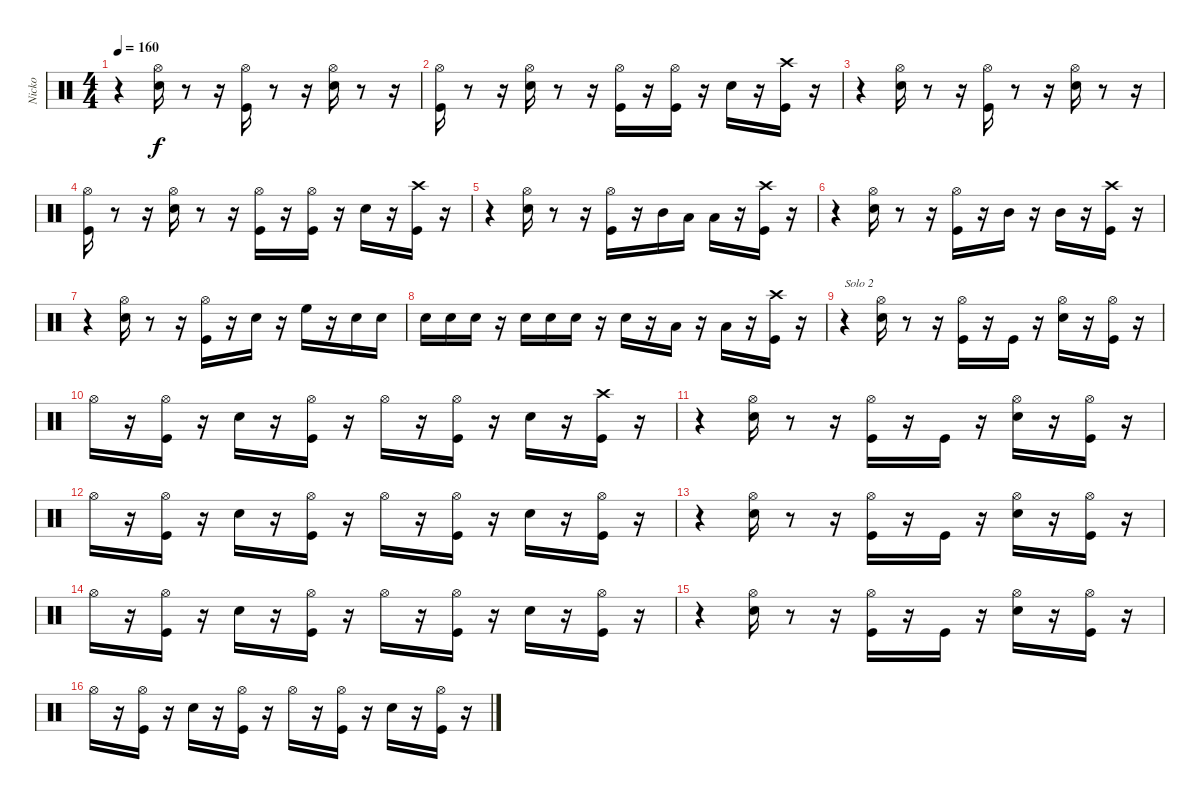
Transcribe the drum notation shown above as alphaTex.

\track ("Nicko" "Nicko") {instrument percussion}
\staff {score}
\articulation defaults
\ts (4 4)
\tempo 160
\clef neutral
\ks c
r.4{dy f} ("Snare (hit) 2" "Hi-Hat (open)").16 r.8 r.16 ("Kick (hit)" "Hi-Hat (open)").16 r.8 r.16 ("Snare (hit) 2" "Hi-Hat (open)").16 r.8 r.16 |
("Kick (hit)" "Hi-Hat (open)").16 r.8 r.16 ("Hi-Hat (open)" "Snare (hit) 2").16 r.8 r.16 ("Kick (hit)" "Hi-Hat (open)").16 r.16 ("Kick (hit)" "Hi-Hat (open)").16 r.16 "Snare (hit) 2".16 r.16 ("Kick (hit)" "Crash high (hit)").16 r.16 |
r.4 ("Snare (hit) 2" "Hi-Hat (open)").16 r.8 r.16 ("Kick (hit)" "Hi-Hat (open)").16 r.8 r.16 ("Snare (hit) 2" "Hi-Hat (open)").16 r.8 r.16 |
("Kick (hit)" "Hi-Hat (open)").16 r.8 r.16 ("Hi-Hat (open)" "Snare (hit) 2").16 r.8 r.16 ("Kick (hit)" "Hi-Hat (open)").16 r.16 ("Kick (hit)" "Hi-Hat (open)").16 r.16 "Snare (hit) 2".16 r.16 ("Kick (hit)" "Crash high (hit)").16 r.16 |
r.4 ("Snare (hit) 2" "Hi-Hat (open)").16 r.8 r.16 ("Kick (hit)" "Hi-Hat (open)").16 r.16 "Mid Tom (hit)".16 "Low Tom (hit)".16 "Low Tom (hit)".16 r.16 ("Kick (hit)" "Crash high (hit)").16 r.16 |
r.4 ("Snare (hit) 2" "Hi-Hat (open)").16 r.8 r.16 ("Kick (hit)" "Hi-Hat (open)").16 r.16 "Mid Tom (hit)".16 r.16 "Mid Tom (hit)".16 r.16 ("Kick (hit)" "Crash high (hit)").16 r.16 |
r.4 ("Hi-Hat (open)" "Snare (hit) 2").16 r.8 r.16 ("Kick (hit)" "Hi-Hat (open)").16 r.16 "Snare (hit) 2".16 r.16 "High Floor Tom (hit)".16 r.16 "Snare (hit) 2".16 "Snare (hit) 2".16 |
"Electric Snare (hit)".16 "Electric Snare (hit)".16 "Electric Snare (hit)".16 r.16 "Snare (hit) 2".16 "Snare (hit) 2".16 "Snare (hit) 2".16 r.16 "Electric Snare (hit)".16 r.16 "Low Tom (hit)".16 r.16 "Low Tom (hit)".16 r.16 ("Kick (hit)" "Crash high (hit)").16 r.16 |
r.4{txt "Solo 2"} ("Hi-Hat (open)" "Snare (hit) 2").16 r.8 r.16 ("Kick (hit)" "Hi-Hat (open)").16 r.16 "Kick (hit)".16 r.16 ("Snare (hit) 2" "Hi-Hat (open)").16 r.16 ("Kick (hit)" "Hi-Hat (open)").16 r.16 |
"Hi-Hat (open)".16 r.16 ("Kick (hit)" "Hi-Hat (open)").16 r.16 "Snare (hit) 2".16 r.16 ("Kick (hit)" "Hi-Hat (open)").16 r.16 "Hi-Hat (open)".16 r.16 ("Kick (hit)" "Hi-Hat (open)").16 r.16 "Snare (hit) 2".16 r.16 ("Kick (hit)" "Crash high (hit)").16 r.16 |
r.4 ("Snare (hit) 2" "Hi-Hat (open)").16 r.8 r.16 ("Kick (hit)" "Hi-Hat (open)").16 r.16 "Kick (hit)".16 r.16 ("Snare (hit) 2" "Hi-Hat (open)").16 r.16 ("Kick (hit)" "Hi-Hat (open)").16 r.16 |
"Hi-Hat (open)".16 r.16 ("Kick (hit)" "Hi-Hat (open)").16 r.16 "Snare (hit) 2".16 r.16 ("Kick (hit)" "Hi-Hat (open)").16 r.16 "Hi-Hat (open)".16 r.16 ("Kick (hit)" "Hi-Hat (open)").16 r.16 "Snare (hit) 2".16 r.16 ("Kick (hit)" "Hi-Hat (open)").16 r.16 |
r.4 ("Snare (hit) 2" "Hi-Hat (open)").16 r.8 r.16 ("Kick (hit)" "Hi-Hat (open)").16 r.16 "Kick (hit)".16 r.16 ("Snare (hit) 2" "Hi-Hat (open)").16 r.16 ("Kick (hit)" "Hi-Hat (open)").16 r.16 |
"Hi-Hat (open)".16 r.16 ("Kick (hit)" "Hi-Hat (open)").16 r.16 "Snare (hit) 2".16 r.16 ("Kick (hit)" "Hi-Hat (open)").16 r.16 "Hi-Hat (open)".16 r.16 ("Kick (hit)" "Hi-Hat (open)").16 r.16 "Snare (hit) 2".16 r.16 ("Kick (hit)" "Hi-Hat (open)").16 r.16 |
r.4 ("Snare (hit) 2" "Hi-Hat (open)").16 r.8 r.16 ("Kick (hit)" "Hi-Hat (open)").16 r.16 "Kick (hit)".16 r.16 ("Snare (hit) 2" "Hi-Hat (open)").16 r.16 ("Kick (hit)" "Hi-Hat (open)").16 r.16 |
"Hi-Hat (open)".16 r.16 ("Kick (hit)" "Hi-Hat (open)").16 r.16 "Snare (hit) 2".16 r.16 ("Kick (hit)" "Hi-Hat (open)").16 r.16 "Hi-Hat (open)".16 r.16 ("Kick (hit)" "Hi-Hat (open)").16 r.16 "Snare (hit) 2".16 r.16 ("Kick (hit)" "Hi-Hat (open)").16 r.16
